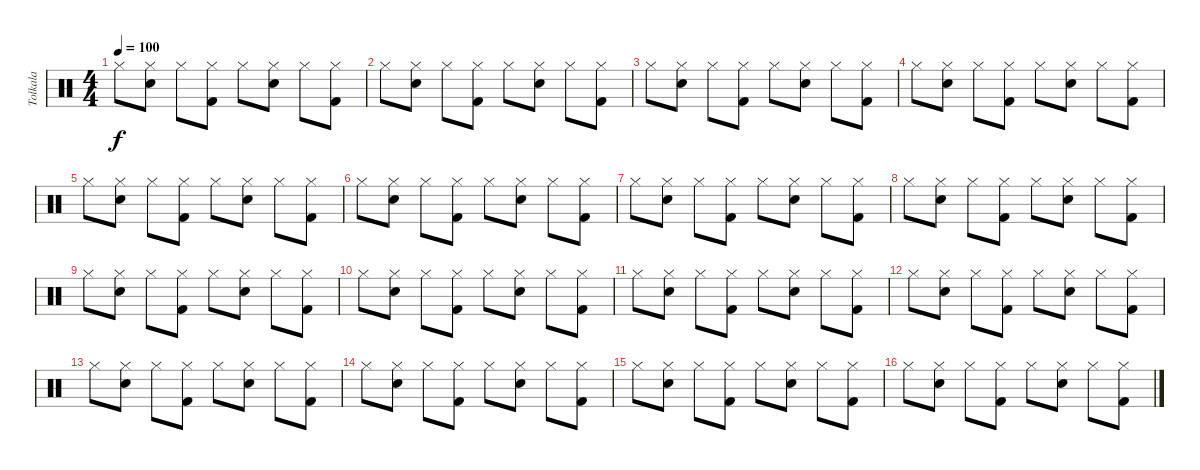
\track ("Tolkala" "Tolkala") {instrument percussion}
\staff {score}
\articulation defaults
\ts (4 4)
\tempo 100
\clef neutral
\ks c "Hi-Hat (closed)".8{dy f}
("Hi-Hat (closed)" "Snare (hit) 2").8 "Hi-Hat (closed)".8 ("Hi-Hat (closed)" "Kick (hit) 2").8 "Hi-Hat (closed)".8 ("Hi-Hat (closed)" "Snare (hit) 2").8 "Hi-Hat (closed)".8 ("Hi-Hat (closed)" "Kick (hit) 2").8 |
"Hi-Hat (closed)".8 ("Hi-Hat (closed)" "Snare (hit) 2").8 "Hi-Hat (closed)".8 ("Hi-Hat (closed)" "Kick (hit) 2").8 "Hi-Hat (closed)".8 ("Hi-Hat (closed)" "Snare (hit) 2").8 "Hi-Hat (closed)".8 ("Hi-Hat (closed)" "Kick (hit) 2").8 |
"Hi-Hat (closed)".8 ("Hi-Hat (closed)" "Snare (hit) 2").8 "Hi-Hat (closed)".8 ("Hi-Hat (closed)" "Kick (hit) 2").8 "Hi-Hat (closed)".8 ("Hi-Hat (closed)" "Snare (hit) 2").8 "Hi-Hat (closed)".8 ("Hi-Hat (closed)" "Kick (hit) 2").8 |
"Hi-Hat (closed)".8 ("Hi-Hat (closed)" "Snare (hit) 2").8 "Hi-Hat (closed)".8 ("Hi-Hat (closed)" "Kick (hit) 2").8 "Hi-Hat (closed)".8 ("Hi-Hat (closed)" "Snare (hit) 2").8 "Hi-Hat (closed)".8 ("Hi-Hat (closed)" "Kick (hit) 2").8 |
"Hi-Hat (closed)".8 ("Hi-Hat (closed)" "Snare (hit) 2").8 "Hi-Hat (closed)".8 ("Hi-Hat (closed)" "Kick (hit) 2").8 "Hi-Hat (closed)".8 ("Hi-Hat (closed)" "Snare (hit) 2").8 "Hi-Hat (closed)".8 ("Hi-Hat (closed)" "Kick (hit) 2").8 |
"Hi-Hat (closed)".8 ("Hi-Hat (closed)" "Snare (hit) 2").8 "Hi-Hat (closed)".8 ("Hi-Hat (closed)" "Kick (hit) 2").8 "Hi-Hat (closed)".8 ("Hi-Hat (closed)" "Snare (hit) 2").8 "Hi-Hat (closed)".8 ("Hi-Hat (closed)" "Kick (hit) 2").8 |
"Hi-Hat (closed)".8 ("Hi-Hat (closed)" "Snare (hit) 2").8 "Hi-Hat (closed)".8 ("Hi-Hat (closed)" "Kick (hit) 2").8 "Hi-Hat (closed)".8 ("Hi-Hat (closed)" "Snare (hit) 2").8 "Hi-Hat (closed)".8 ("Hi-Hat (closed)" "Kick (hit) 2").8 |
"Hi-Hat (closed)".8 ("Hi-Hat (closed)" "Snare (hit) 2").8 "Hi-Hat (closed)".8 ("Hi-Hat (closed)" "Kick (hit) 2").8 "Hi-Hat (closed)".8 ("Hi-Hat (closed)" "Snare (hit) 2").8 "Hi-Hat (closed)".8 ("Hi-Hat (closed)" "Kick (hit) 2").8 |
"Hi-Hat (closed)".8 ("Hi-Hat (closed)" "Snare (hit) 2").8 "Hi-Hat (closed)".8 ("Hi-Hat (closed)" "Kick (hit) 2").8 "Hi-Hat (closed)".8 ("Hi-Hat (closed)" "Snare (hit) 2").8 "Hi-Hat (closed)".8 ("Hi-Hat (closed)" "Kick (hit) 2").8 |
"Hi-Hat (closed)".8 ("Hi-Hat (closed)" "Snare (hit) 2").8 "Hi-Hat (closed)".8 ("Hi-Hat (closed)" "Kick (hit) 2").8 "Hi-Hat (closed)".8 ("Hi-Hat (closed)" "Snare (hit) 2").8 "Hi-Hat (closed)".8 ("Hi-Hat (closed)" "Kick (hit) 2").8 |
"Hi-Hat (closed)".8 ("Hi-Hat (closed)" "Snare (hit) 2").8 "Hi-Hat (closed)".8 ("Hi-Hat (closed)" "Kick (hit) 2").8 "Hi-Hat (closed)".8 ("Hi-Hat (closed)" "Snare (hit) 2").8 "Hi-Hat (closed)".8 ("Hi-Hat (closed)" "Kick (hit) 2").8 |
"Hi-Hat (closed)".8 ("Hi-Hat (closed)" "Snare (hit) 2").8 "Hi-Hat (closed)".8 ("Hi-Hat (closed)" "Kick (hit) 2").8 "Hi-Hat (closed)".8 ("Hi-Hat (closed)" "Snare (hit) 2").8 "Hi-Hat (closed)".8 ("Hi-Hat (closed)" "Kick (hit) 2").8 |
"Hi-Hat (closed)".8 ("Hi-Hat (closed)" "Snare (hit) 2").8 "Hi-Hat (closed)".8 ("Hi-Hat (closed)" "Kick (hit) 2").8 "Hi-Hat (closed)".8 ("Hi-Hat (closed)" "Snare (hit) 2").8 "Hi-Hat (closed)".8 ("Hi-Hat (closed)" "Kick (hit) 2").8 |
"Hi-Hat (closed)".8 ("Hi-Hat (closed)" "Snare (hit) 2").8 "Hi-Hat (closed)".8 ("Hi-Hat (closed)" "Kick (hit) 2").8 "Hi-Hat (closed)".8 ("Hi-Hat (closed)" "Snare (hit) 2").8 "Hi-Hat (closed)".8 ("Hi-Hat (closed)" "Kick (hit) 2").8 |
"Hi-Hat (closed)".8 ("Hi-Hat (closed)" "Snare (hit) 2").8 "Hi-Hat (closed)".8 ("Hi-Hat (closed)" "Kick (hit) 2").8 "Hi-Hat (closed)".8 ("Hi-Hat (closed)" "Snare (hit) 2").8 "Hi-Hat (closed)".8 ("Hi-Hat (closed)" "Kick (hit) 2").8 |
"Hi-Hat (closed)".8 ("Hi-Hat (closed)" "Snare (hit) 2").8 "Hi-Hat (closed)".8 ("Hi-Hat (closed)" "Kick (hit) 2").8 "Hi-Hat (closed)".8 ("Hi-Hat (closed)" "Snare (hit) 2").8 "Hi-Hat (closed)".8 ("Hi-Hat (closed)" "Kick (hit) 2").8
